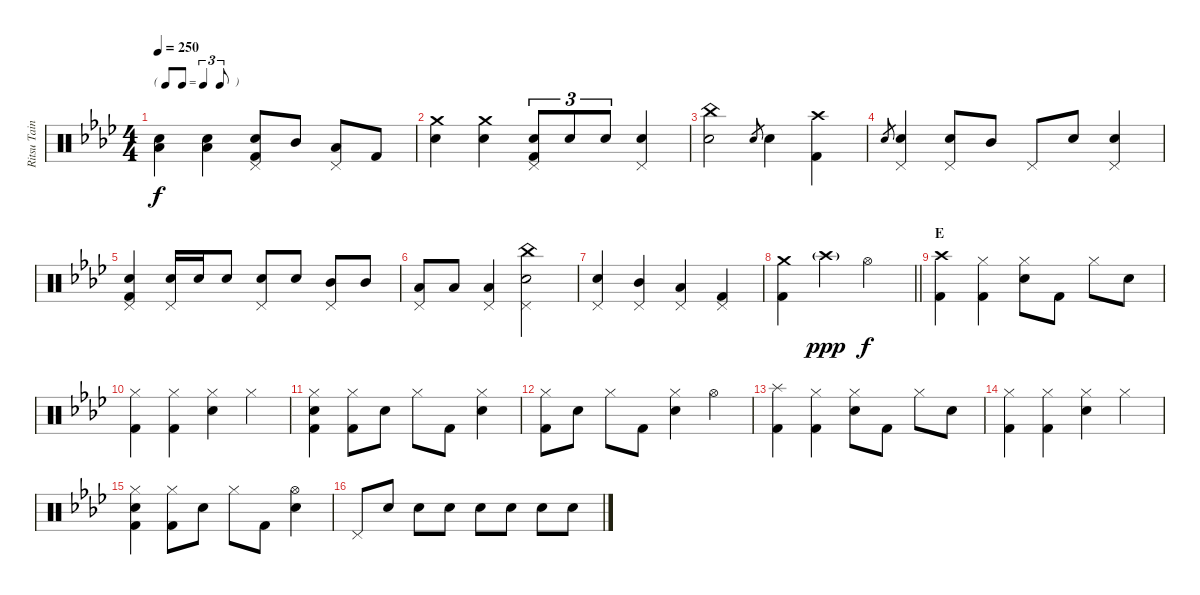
\track ("Ritsu Tainaka" "Ritsu Tain") {instrument percussion}
\staff {score}
\articulation defaults
\ts (4 4)
\tf triplet8th
\tempo 250
\clef neutral
\ks ab
("Electric Snare (hit)" "Low Floor Tom (hit)").4{dy f} ("Electric Snare (hit)" "Low Floor Tom (hit)").4 ("Pedal Hi-Hat (hit)" "Electric Snare (hit)" "Kick (hit) 2").8 "Mid Tom (hit)".8 ("Pedal Hi-Hat (hit)" "Low Floor Tom (hit)").8 "Kick (hit) 2".8 |
("Crash medium (hit)" "Electric Snare (hit)").4 ("Crash medium (hit)" "Electric Snare (hit)").4 ("Pedal Hi-Hat (hit)" "Electric Snare (hit)" "Kick (hit) 2").8{tu (3 2)} "Electric Snare (hit)".8{tu (3 2)} "Electric Snare (hit)".8{tu (3 2)} ("Pedal Hi-Hat (hit)" "Electric Snare (hit)").4 |
("China (hit)" "Electric Snare (hit)").2 "Electric Snare (hit)".8{gr} "Electric Snare (hit)".4 ("Crash high (hit)" "Kick (hit) 2").4 |
"Electric Snare (hit)".8{gr} ("Pedal Hi-Hat (hit)" "Electric Snare (hit)").4 ("Pedal Hi-Hat (hit)" "Electric Snare (hit)").8 "Mid Tom (hit)".8 "Pedal Hi-Hat (hit)".8 "Electric Snare (hit)".8 ("Pedal Hi-Hat (hit)" "Electric Snare (hit)").4 |
("Pedal Hi-Hat (hit)" "Electric Snare (hit)" "Kick (hit) 2").4 ("Pedal Hi-Hat (hit)" "Electric Snare (hit)").16 "Electric Snare (hit)".16 "Electric Snare (hit)".8 ("Pedal Hi-Hat (hit)" "Electric Snare (hit)").8 "Electric Snare (hit)".8 ("Pedal Hi-Hat (hit)" "Mid Tom (hit)").8 "Mid Tom (hit)".8 |
("Pedal Hi-Hat (hit)" "Low Tom (hit)").8 "Low Tom (hit)".8 ("Pedal Hi-Hat (hit)" "Low Tom (hit)").4 ("China (hit)" "Pedal Hi-Hat (hit)" "Electric Snare (hit)").2 |
("Pedal Hi-Hat (hit)" "Electric Snare (hit)").4 ("Pedal Hi-Hat (hit)" "Mid Tom (hit)").4 ("Pedal Hi-Hat (hit)" "Low Floor Tom (hit)").4 ("Pedal Hi-Hat (hit)" "Kick (hit) 2").4 |
\barLineRight lightlight
("Crash medium (hit)" "Kick (hit) 2").4 "Crash high (hit)"{g}.4{dy ppp} "Hi-Hat (open)".2{dy f} |
\section ("" "E")
("Crash high (hit)" "Kick (hit) 2").4 ("Hi-Hat (closed)" "Kick (hit) 2").4 ("Hi-Hat (closed)" "Electric Snare (hit)").8 "Kick (hit) 2".8 "Hi-Hat (closed)".8 "Electric Snare (hit)".8 |
("Hi-Hat (closed)" "Kick (hit) 2").4 ("Hi-Hat (closed)" "Kick (hit) 2").4 ("Hi-Hat (closed)" "Electric Snare (hit)").4 "Hi-Hat (closed)".4 |
("Hi-Hat (closed)" "Electric Snare (hit)" "Kick (hit) 2").4 ("Hi-Hat (closed)" "Kick (hit) 2").8 "Electric Snare (hit)".8 "Hi-Hat (closed)".8 "Kick (hit) 2".8 ("Hi-Hat (closed)" "Electric Snare (hit)").4 |
("Hi-Hat (closed)" "Kick (hit) 2").8 "Electric Snare (hit)".8 "Hi-Hat (closed)".8 "Kick (hit) 2".8 ("Hi-Hat (closed)" "Electric Snare (hit)").4 "Hi-Hat (open)".4 |
("Splash (hit)" "Kick (hit) 2").4 ("Hi-Hat (closed)" "Kick (hit) 2").4 ("Hi-Hat (closed)" "Electric Snare (hit)").8 "Kick (hit) 2".8 "Hi-Hat (closed)".8 "Electric Snare (hit)".8 |
("Hi-Hat (closed)" "Kick (hit) 2").4 ("Hi-Hat (closed)" "Kick (hit) 2").4 ("Hi-Hat (closed)" "Electric Snare (hit)").4 "Hi-Hat (closed)".4 |
("Hi-Hat (closed)" "Electric Snare (hit)" "Kick (hit) 2").4 ("Hi-Hat (closed)" "Kick (hit) 2").8 "Electric Snare (hit)".8 "Hi-Hat (closed)".8 "Kick (hit) 2".8 ("Hi-Hat (open)" "Electric Snare (hit)").4 |
"Pedal Hi-Hat (hit)".8 "Electric Snare (hit)".8 "Electric Snare (hit)".8 "Electric Snare (hit)".8 "Electric Snare (hit)".8 "Electric Snare (hit)".8 "Electric Snare (hit)".8 "Electric Snare (hit)".8
